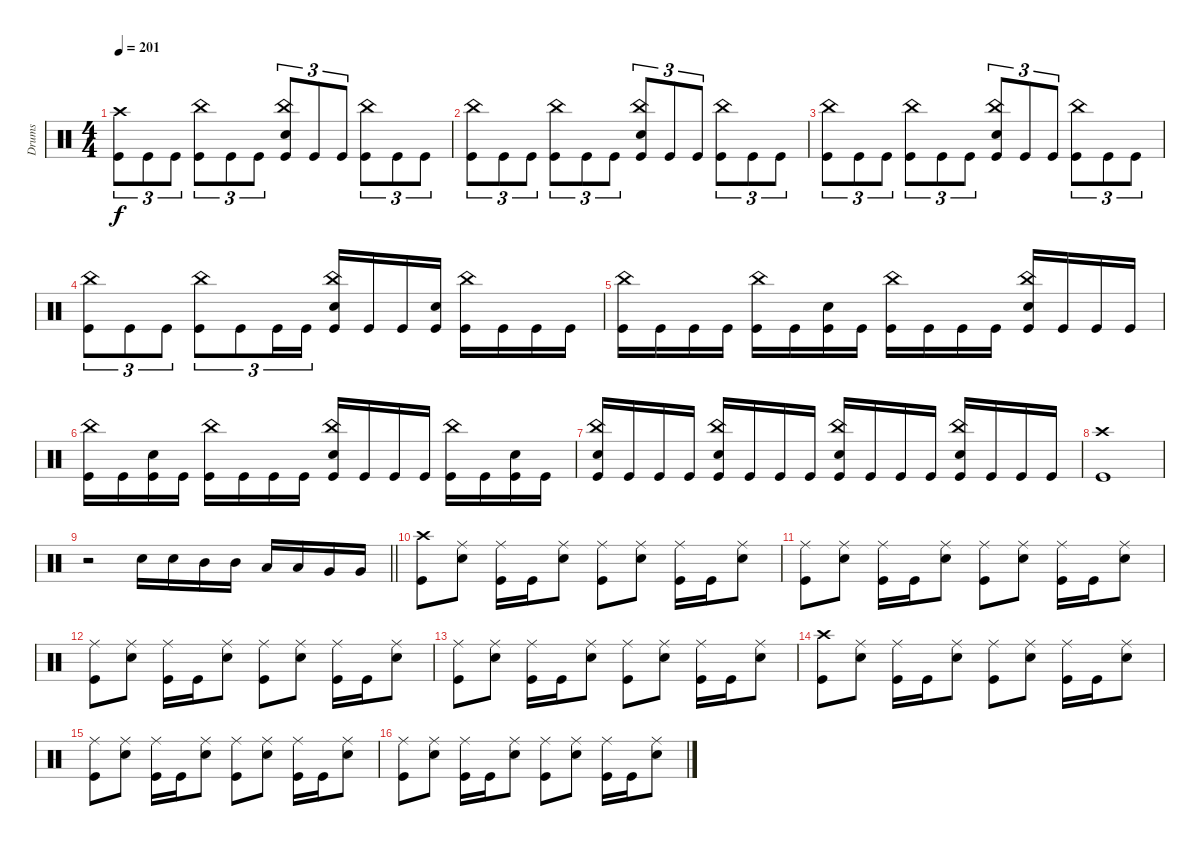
\track ("Drums" "Drums") {instrument percussion}
\staff
\articulation defaults
\ts (4 4)
\tempo 201
\clef neutral
\ks c
("Crash high (hit)" "Kick (hit)").8{tu (3 2) dy f} "Kick (hit)".8{tu (3 2)} "Kick (hit)".8{tu (3 2)} ("China (hit)" "Kick (hit)").8{tu (3 2)} "Kick (hit)".8{tu (3 2)} "Kick (hit)".8{tu (3 2)} ("China (hit)" "Electric Snare (hit)" "Kick (hit)").8{tu (3 2)} "Kick (hit)".8{tu (3 2)} "Kick (hit)".8{tu (3 2)} ("China (hit)" "Kick (hit)").8{tu (3 2)} "Kick (hit)".8{tu (3 2)} "Kick (hit)".8{tu (3 2)} |
("China (hit)" "Kick (hit)").8{tu (3 2)} "Kick (hit)".8{tu (3 2)} "Kick (hit)".8{tu (3 2)} ("China (hit)" "Kick (hit)").8{tu (3 2)} "Kick (hit)".8{tu (3 2)} "Kick (hit)".8{tu (3 2)} ("China (hit)" "Electric Snare (hit)" "Kick (hit)").8{tu (3 2)} "Kick (hit)".8{tu (3 2)} "Kick (hit)".8{tu (3 2)} ("China (hit)" "Kick (hit)").8{tu (3 2)} "Kick (hit)".8{tu (3 2)} "Kick (hit)".8{tu (3 2)} |
("China (hit)" "Kick (hit)").8{tu (3 2)} "Kick (hit)".8{tu (3 2)} "Kick (hit)".8{tu (3 2)} ("China (hit)" "Kick (hit)").8{tu (3 2)} "Kick (hit)".8{tu (3 2)} "Kick (hit)".8{tu (3 2)} ("China (hit)" "Electric Snare (hit)" "Kick (hit)").8{tu (3 2)} "Kick (hit)".8{tu (3 2)} "Kick (hit)".8{tu (3 2)} ("China (hit)" "Kick (hit)").8{tu (3 2)} "Kick (hit)".8{tu (3 2)} "Kick (hit)".8{tu (3 2)} |
("China (hit)" "Kick (hit)").8{tu (3 2)} "Kick (hit)".8{tu (3 2)} "Kick (hit)".8{tu (3 2)} ("China (hit)" "Kick (hit)").8{tu (3 2)} "Kick (hit)".8{tu (3 2)} "Kick (hit)".16{tu (3 2)} "Kick (hit)".16{tu (3 2)} ("China (hit)" "Electric Snare (hit)" "Kick (hit)").16 "Kick (hit)".16 "Kick (hit)".16 ("Electric Snare (hit)" "Kick (hit)").16 ("China (hit)" "Kick (hit)").16 "Kick (hit)".16 "Kick (hit)".16 "Kick (hit)".16 |
("China (hit)" "Kick (hit)").16 "Kick (hit)".16 "Kick (hit)".16 "Kick (hit)".16 ("China (hit)" "Kick (hit)").16 "Kick (hit)".16 ("Electric Snare (hit)" "Kick (hit)").16 "Kick (hit)".16 ("China (hit)" "Kick (hit)").16 "Kick (hit)".16 "Kick (hit)".16 "Kick (hit)".16 ("China (hit)" "Electric Snare (hit)" "Kick (hit)").16 "Kick (hit)".16 "Kick (hit)".16 "Kick (hit)".16 |
("China (hit)" "Kick (hit)").16 "Kick (hit)".16 ("Electric Snare (hit)" "Kick (hit)").16 "Kick (hit)".16 ("China (hit)" "Kick (hit)").16 "Kick (hit)".16 "Kick (hit)".16 "Kick (hit)".16 ("China (hit)" "Electric Snare (hit)" "Kick (hit)").16 "Kick (hit)".16 "Kick (hit)".16 "Kick (hit)".16 ("China (hit)" "Kick (hit)").16 "Kick (hit)".16 ("Electric Snare (hit)" "Kick (hit)").16 "Kick (hit)".16 |
("China (hit)" "Electric Snare (hit)" "Kick (hit)").16 "Kick (hit)".16 "Kick (hit)".16 "Kick (hit)".16 ("China (hit)" "Electric Snare (hit)" "Kick (hit)").16 "Kick (hit)".16 "Kick (hit)".16 "Kick (hit)".16 ("China (hit)" "Electric Snare (hit)" "Kick (hit)").16 "Kick (hit)".16 "Kick (hit)".16 "Kick (hit)".16 ("China (hit)" "Electric Snare (hit)" "Kick (hit)").16 "Kick (hit)".16 "Kick (hit)".16 "Kick (hit)".16 |
("Crash high (hit)" "Kick (hit)").1 |
\barLineRight lightlight
r.2 "Electric Snare (hit)".16 "Electric Snare (hit)".16 "Mid Tom (hit)".16 "Mid Tom (hit)".16 "Low Tom (hit)".16 "Low Tom (hit)".16 "Very Low Tom (hit)".16 "Very Low Tom (hit)".16 |
\section ("" "")
("Crash high (hit)" "Kick (hit)").8 ("Ride (middle)" "Electric Snare (hit)").8 ("Ride (middle)" "Kick (hit)").16 "Kick (hit)".16 ("Ride (middle)" "Electric Snare (hit)").8 ("Ride (middle)" "Kick (hit)").8 ("Ride (middle)" "Electric Snare (hit)").8 ("Ride (middle)" "Kick (hit)").16 "Kick (hit)".16 ("Ride (middle)" "Electric Snare (hit)").8 |
("Ride (middle)" "Kick (hit)").8 ("Ride (middle)" "Electric Snare (hit)").8 ("Ride (middle)" "Kick (hit)").16 "Kick (hit)".16 ("Ride (middle)" "Electric Snare (hit)").8 ("Ride (middle)" "Kick (hit)").8 ("Ride (middle)" "Electric Snare (hit)").8 ("Ride (middle)" "Kick (hit)").16 "Kick (hit)".16 ("Ride (middle)" "Electric Snare (hit)").8 |
("Ride (middle)" "Kick (hit)").8 ("Ride (middle)" "Electric Snare (hit)").8 ("Ride (middle)" "Kick (hit)").16 "Kick (hit)".16 ("Ride (middle)" "Electric Snare (hit)").8 ("Ride (middle)" "Kick (hit)").8 ("Ride (middle)" "Electric Snare (hit)").8 ("Ride (middle)" "Kick (hit)").16 "Kick (hit)".16 ("Ride (middle)" "Electric Snare (hit)").8 |
("Ride (middle)" "Kick (hit)").8 ("Ride (middle)" "Electric Snare (hit)").8 ("Ride (middle)" "Kick (hit)").16 "Kick (hit)".16 ("Ride (middle)" "Electric Snare (hit)").8 ("Ride (middle)" "Kick (hit)").8 ("Ride (middle)" "Electric Snare (hit)").8 ("Ride (middle)" "Kick (hit)").16 "Kick (hit)".16 ("Ride (middle)" "Electric Snare (hit)").8 |
("Crash high (hit)" "Kick (hit)").8 ("Ride (middle)" "Electric Snare (hit)").8 ("Ride (middle)" "Kick (hit)").16 "Kick (hit)".16 ("Ride (middle)" "Electric Snare (hit)").8 ("Ride (middle)" "Kick (hit)").8 ("Ride (middle)" "Electric Snare (hit)").8 ("Ride (middle)" "Kick (hit)").16 "Kick (hit)".16 ("Ride (middle)" "Electric Snare (hit)").8 |
("Ride (middle)" "Kick (hit)").8 ("Ride (middle)" "Electric Snare (hit)").8 ("Ride (middle)" "Kick (hit)").16 "Kick (hit)".16 ("Ride (middle)" "Electric Snare (hit)").8 ("Ride (middle)" "Kick (hit)").8 ("Ride (middle)" "Electric Snare (hit)").8 ("Ride (middle)" "Kick (hit)").16 "Kick (hit)".16 ("Ride (middle)" "Electric Snare (hit)").8 |
("Ride (middle)" "Kick (hit)").8 ("Ride (middle)" "Electric Snare (hit)").8 ("Ride (middle)" "Kick (hit)").16 "Kick (hit)".16 ("Ride (middle)" "Electric Snare (hit)").8 ("Ride (middle)" "Kick (hit)").8 ("Ride (middle)" "Electric Snare (hit)").8 ("Ride (middle)" "Kick (hit)").16 "Kick (hit)".16 ("Ride (middle)" "Electric Snare (hit)").8
